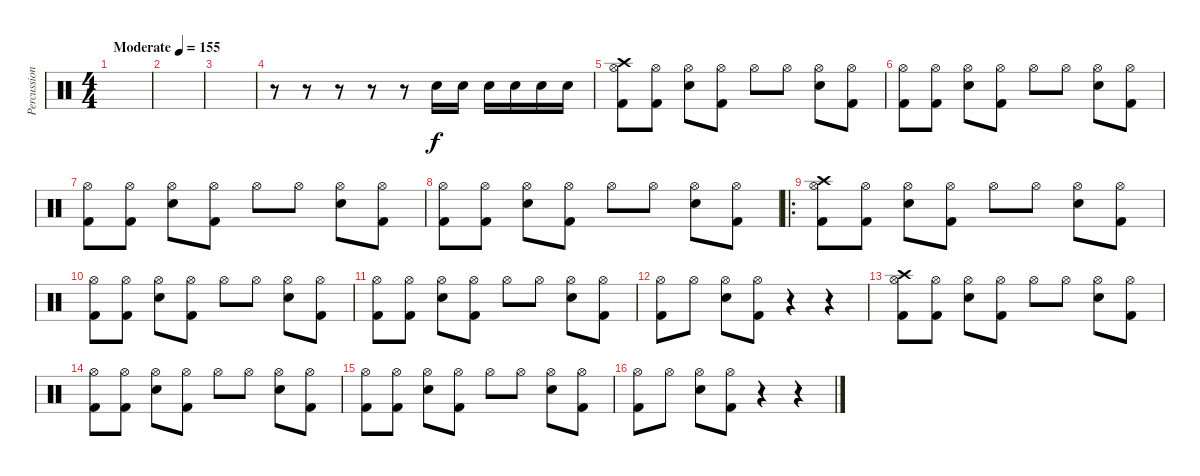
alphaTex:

\track ("Percussion" "Percussion") {instrument percussion}
\staff {score}
\articulation defaults
\ts (4 4)
\tempo (155 "Moderate")
\clef neutral
\ks c
|
|
|
r.8 r.8 r.8 r.8 r.8 "Electric Snare (hit)".16 "Electric Snare (hit)".16 "Electric Snare (hit)".16 "Electric Snare (hit)".16 "Electric Snare (hit)".16 "Electric Snare (hit)".16 |
("Crash high (hit)" "Hi-Hat (open)" "Kick (hit) 2").8 ("Hi-Hat (open)" "Kick (hit) 2").8 ("Hi-Hat (open)" "Electric Snare (hit)").8 ("Hi-Hat (open)" "Kick (hit) 2").8 "Hi-Hat (open)".8 "Hi-Hat (open)".8 ("Hi-Hat (open)" "Electric Snare (hit)").8 ("Hi-Hat (open)" "Kick (hit) 2").8 |
("Hi-Hat (open)" "Kick (hit) 2").8 ("Hi-Hat (open)" "Kick (hit) 2").8 ("Hi-Hat (open)" "Electric Snare (hit)").8 ("Hi-Hat (open)" "Kick (hit) 2").8 "Hi-Hat (open)".8 "Hi-Hat (open)".8 ("Hi-Hat (open)" "Electric Snare (hit)").8 ("Hi-Hat (open)" "Kick (hit) 2").8 |
("Hi-Hat (open)" "Kick (hit) 2").8 ("Hi-Hat (open)" "Kick (hit) 2").8 ("Hi-Hat (open)" "Electric Snare (hit)").8 ("Hi-Hat (open)" "Kick (hit) 2").8 "Hi-Hat (open)".8 "Hi-Hat (open)".8 ("Hi-Hat (open)" "Electric Snare (hit)").8 ("Hi-Hat (open)" "Kick (hit) 2").8 |
("Hi-Hat (open)" "Kick (hit) 2").8 ("Hi-Hat (open)" "Kick (hit) 2").8 ("Hi-Hat (open)" "Electric Snare (hit)").8 ("Hi-Hat (open)" "Kick (hit) 2").8 "Hi-Hat (open)".8 "Hi-Hat (open)".8 ("Hi-Hat (open)" "Electric Snare (hit)").8 ("Hi-Hat (open)" "Kick (hit) 2").8 |
\ro
("Crash high (hit)" "Hi-Hat (open)" "Kick (hit) 2").8 ("Hi-Hat (open)" "Kick (hit) 2").8 ("Hi-Hat (open)" "Electric Snare (hit)").8 ("Hi-Hat (open)" "Kick (hit) 2").8 "Hi-Hat (open)".8 "Hi-Hat (open)".8 ("Hi-Hat (open)" "Electric Snare (hit)").8 ("Hi-Hat (open)" "Kick (hit) 2").8 |
("Hi-Hat (open)" "Kick (hit) 2").8 ("Hi-Hat (open)" "Kick (hit) 2").8 ("Hi-Hat (open)" "Electric Snare (hit)").8 ("Hi-Hat (open)" "Kick (hit) 2").8 "Hi-Hat (open)".8 "Hi-Hat (open)".8 ("Hi-Hat (open)" "Electric Snare (hit)").8 ("Hi-Hat (open)" "Kick (hit) 2").8 |
("Hi-Hat (open)" "Kick (hit) 2").8 ("Hi-Hat (open)" "Kick (hit) 2").8 ("Hi-Hat (open)" "Electric Snare (hit)").8 ("Hi-Hat (open)" "Kick (hit) 2").8 "Hi-Hat (open)".8 "Hi-Hat (open)".8 ("Hi-Hat (open)" "Electric Snare (hit)").8 ("Hi-Hat (open)" "Kick (hit) 2").8 |
("Hi-Hat (open)" "Kick (hit) 2").8 "Hi-Hat (open)".8 ("Hi-Hat (open)" "Electric Snare (hit)").8 ("Hi-Hat (open)" "Kick (hit) 2").8 r.4 r.4 |
("Crash high (hit)" "Hi-Hat (open)" "Kick (hit) 2").8 ("Hi-Hat (open)" "Kick (hit) 2").8 ("Hi-Hat (open)" "Electric Snare (hit)").8 ("Hi-Hat (open)" "Kick (hit) 2").8 "Hi-Hat (open)".8 "Hi-Hat (open)".8 ("Hi-Hat (open)" "Electric Snare (hit)").8 ("Hi-Hat (open)" "Kick (hit) 2").8 |
("Hi-Hat (open)" "Kick (hit) 2").8 ("Hi-Hat (open)" "Kick (hit) 2").8 ("Hi-Hat (open)" "Electric Snare (hit)").8 ("Hi-Hat (open)" "Kick (hit) 2").8 "Hi-Hat (open)".8 "Hi-Hat (open)".8 ("Hi-Hat (open)" "Electric Snare (hit)").8 ("Hi-Hat (open)" "Kick (hit) 2").8 |
("Hi-Hat (open)" "Kick (hit) 2").8 ("Hi-Hat (open)" "Kick (hit) 2").8 ("Hi-Hat (open)" "Electric Snare (hit)").8 ("Hi-Hat (open)" "Kick (hit) 2").8 "Hi-Hat (open)".8 "Hi-Hat (open)".8 ("Hi-Hat (open)" "Electric Snare (hit)").8 ("Hi-Hat (open)" "Kick (hit) 2").8 |
("Hi-Hat (open)" "Kick (hit) 2").8 "Hi-Hat (open)".8 ("Hi-Hat (open)" "Electric Snare (hit)").8 ("Hi-Hat (open)" "Kick (hit) 2").8 r.4 r.4
